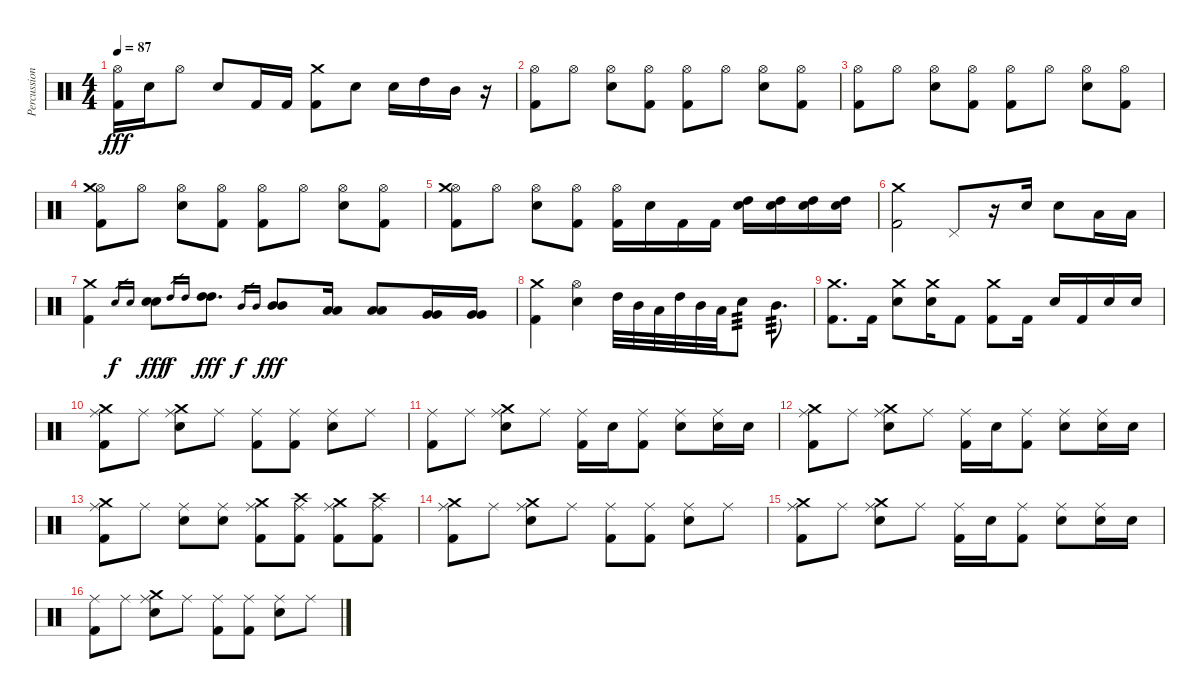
\track ("Percussion" "Percussion") {instrument percussion}
\staff {score}
\articulation defaults
\ts (4 4)
\tempo 87
\clef neutral
\ks c
("Hi-Hat (open)" "Kick (hit) 2").16{dy fff} "Electric Snare (hit)".16 "Hi-Hat (open)".8 "Electric Snare (hit)".8 "Kick (hit) 2".16 "Kick (hit) 2".16 ("Crash medium (hit)" "Kick (hit) 2").8 "Electric Snare (hit)".8 "Electric Snare (hit)".16 "High Tom (hit)".16 "Mid Tom (hit)".16 r.16 |
("Hi-Hat (open)" "Kick (hit) 2").8 "Hi-Hat (open)".8 ("Hi-Hat (open)" "Electric Snare (hit)").8 ("Hi-Hat (open)" "Kick (hit) 2").8 ("Hi-Hat (open)" "Kick (hit) 2").8 "Hi-Hat (open)".8 ("Hi-Hat (open)" "Electric Snare (hit)").8 ("Hi-Hat (open)" "Kick (hit) 2").8 |
("Hi-Hat (open)" "Kick (hit) 2").8 "Hi-Hat (open)".8 ("Hi-Hat (open)" "Electric Snare (hit)").8 ("Hi-Hat (open)" "Kick (hit) 2").8 ("Hi-Hat (open)" "Kick (hit) 2").8 "Hi-Hat (open)".8 ("Hi-Hat (open)" "Electric Snare (hit)").8 ("Hi-Hat (open)" "Kick (hit) 2").8 |
("Hi-Hat (open)" "Crash medium (hit)" "Kick (hit) 2").8 "Hi-Hat (open)".8 ("Hi-Hat (open)" "Electric Snare (hit)").8 ("Hi-Hat (open)" "Kick (hit) 2").8 ("Hi-Hat (open)" "Kick (hit) 2").8 "Hi-Hat (open)".8 ("Hi-Hat (open)" "Electric Snare (hit)").8 ("Hi-Hat (open)" "Kick (hit) 2").8 |
("Hi-Hat (open)" "Crash medium (hit)" "Kick (hit) 2").8 "Hi-Hat (open)".8 ("Hi-Hat (open)" "Electric Snare (hit)").8 ("Hi-Hat (open)" "Kick (hit) 2").8 ("Hi-Hat (open)" "Kick (hit) 2").16 "Electric Snare (hit)".16 "Kick (hit) 2".16 "Kick (hit) 2".16 ("Electric Snare (hit)" "High Tom (hit)").16 ("Electric Snare (hit)" "High Tom (hit)").16 ("Electric Snare (hit)" "High Tom (hit)").16 ("Electric Snare (hit)" "High Tom (hit)").16 |
("Crash medium (hit)" "Kick (hit) 2").2 "Pedal Hi-Hat (hit)".8 r.16 "Electric Snare (hit)".16 "Electric Snare (hit)".8 "Low Tom (hit)".16 "Low Tom (hit)".16 |
("Crash medium (hit)" "Kick (hit) 2").4 "Electric Snare (hit)".16{gr dy f} "Electric Snare (hit)".16{gr} ("Electric Snare (hit)" "Electric Snare (hit)").8{dy fff} "High Tom (hit)".16{gr dy f} "High Tom (hit)".16{gr} ("High Tom (hit)" "High Tom (hit)").8{d dy fff} "Mid Tom (hit)".16{gr dy f} "Mid Tom (hit)".16{gr} ("Mid Tom (hit)" "Mid Tom (hit)").8{dy fff} ("Low Tom (hit)" "Low Tom (hit)").16 ("Low Tom (hit)" "Low Tom (hit)").8 ("Very Low Tom (hit)" "Very Low Tom (hit)").16 ("Very Low Tom (hit)" "Very Low Tom (hit)").16 |
("Crash medium (hit)" "Kick (hit) 2").4 ("Hi-Hat (open)" "Electric Snare (hit)").4 "High Tom (hit)".32 "Mid Tom (hit)".32 "Low Tom (hit)".32 "High Tom (hit)".32 "Mid Tom (hit)".32 "Low Tom (hit)".32 "Electric Snare (hit)".8{tp 3} "Mid Tom (hit)".8{d tp 3} |
("Crash medium (hit)" "Kick (hit) 2").8{d} "Kick (hit) 2".16 ("Crash medium (hit)" "Electric Snare (hit)").8 ("Crash medium (hit)" "Electric Snare (hit)").16 "Kick (hit) 2".8 ("Crash medium (hit)" "Kick (hit) 2").8 "Kick (hit) 2".16 "Electric Snare (hit)".16 "Kick (hit) 2".16 "Electric Snare (hit)".16 "Electric Snare (hit)".16 |
("Ride (middle)" "Crash medium (hit)" "Kick (hit) 2").8 "Ride (middle)".8 ("Ride (middle)" "Crash medium (hit)" "Electric Snare (hit)").8 "Ride (middle)".8 ("Ride (middle)" "Kick (hit) 2").8 ("Ride (middle)" "Kick (hit) 2").8 ("Ride (middle)" "Electric Snare (hit)").8 "Ride (middle)".8 |
("Ride (middle)" "Kick (hit) 2").8 "Ride (middle)".8 ("Ride (middle)" "Crash medium (hit)" "Electric Snare (hit)").8 "Ride (middle)".8 ("Ride (middle)" "Kick (hit) 2").16 "Electric Snare (hit)".16 ("Ride (middle)" "Kick (hit) 2").8 ("Ride (middle)" "Electric Snare (hit)").8 ("Ride (middle)" "Electric Snare (hit)").16 "Electric Snare (hit)".16 |
("Ride (middle)" "Crash medium (hit)" "Kick (hit) 2").8 "Ride (middle)".8 ("Ride (middle)" "Crash medium (hit)" "Electric Snare (hit)").8 "Ride (middle)".8 ("Ride (middle)" "Kick (hit) 2").16 "Electric Snare (hit)".16 ("Ride (middle)" "Kick (hit) 2").8 ("Ride (middle)" "Electric Snare (hit)").8 ("Ride (middle)" "Electric Snare (hit)").16 "Electric Snare (hit)".16 |
("Ride (middle)" "Crash medium (hit)" "Kick (hit) 2").8 "Ride (middle)".8 ("Ride (middle)" "Electric Snare (hit)").8 ("Ride (middle)" "Electric Snare (hit)").8 ("Ride (middle)" "Crash medium (hit)" "Kick (hit) 2").8 ("Ride (middle)" "Crash high (hit)" "Kick (hit) 2").8 ("Ride (middle)" "Crash medium (hit)" "Kick (hit) 2").8 ("Ride (middle)" "Crash high (hit)" "Kick (hit) 2").8 |
("Ride (middle)" "Crash medium (hit)" "Kick (hit) 2").8 "Ride (middle)".8 ("Ride (middle)" "Crash medium (hit)" "Electric Snare (hit)").8 "Ride (middle)".8 ("Ride (middle)" "Kick (hit) 2").8 ("Ride (middle)" "Kick (hit) 2").8 ("Ride (middle)" "Electric Snare (hit)").8 "Ride (middle)".8 |
("Ride (middle)" "Crash medium (hit)" "Kick (hit) 2").8 "Ride (middle)".8 ("Ride (middle)" "Crash medium (hit)" "Electric Snare (hit)").8 "Ride (middle)".8 ("Ride (middle)" "Kick (hit) 2").16 "Electric Snare (hit)".16 ("Ride (middle)" "Kick (hit) 2").8 ("Ride (middle)" "Electric Snare (hit)").8 ("Ride (middle)" "Electric Snare (hit)").16 "Electric Snare (hit)".16 |
("Ride (middle)" "Kick (hit) 2").8 "Ride (middle)".8 ("Ride (middle)" "Crash medium (hit)" "Electric Snare (hit)").8 "Ride (middle)".8 ("Ride (middle)" "Kick (hit) 2").8 ("Ride (middle)" "Kick (hit) 2").8 ("Ride (middle)" "Electric Snare (hit)").8 "Ride (middle)".8
